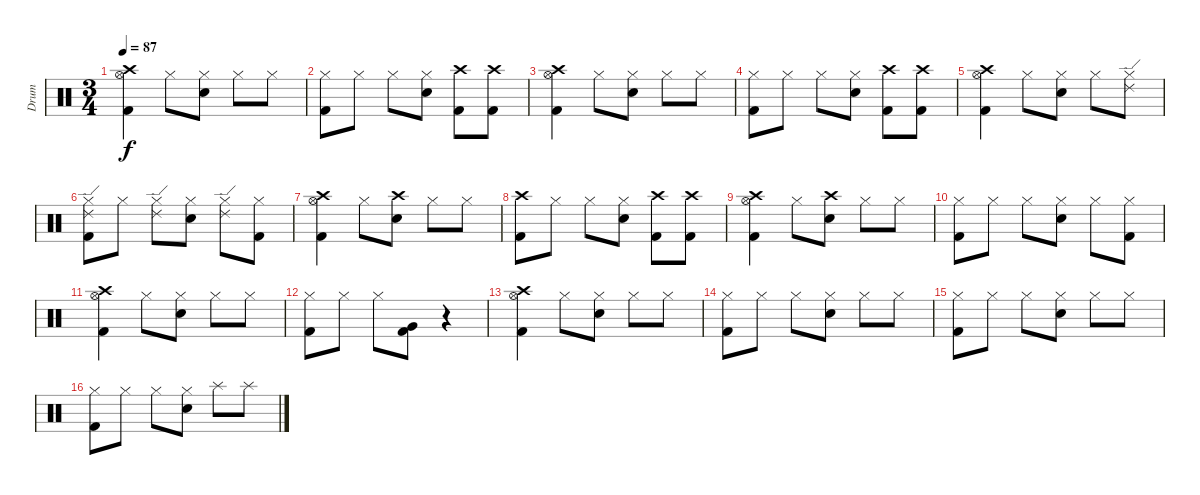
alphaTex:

\track ("Drum" "Drum") {instrument percussion}
\staff {score}
\articulation defaults
\ts (3 4)
\tempo 87
\clef neutral
\ks c
("Crash high (hit)" "Hi-Hat (open)" "Kick (hit) 2").4{dy f} "Hi-Hat (closed)".8 ("Hi-Hat (closed)" "Electric Snare (hit)").8 "Hi-Hat (closed)".8 "Hi-Hat (closed)".8 |
("Hi-Hat (closed)" "Kick (hit) 2").8 "Hi-Hat (closed)".8 "Hi-Hat (closed)".8 ("Hi-Hat (closed)" "Electric Snare (hit)").8 ("Crash high (hit)" "Kick (hit) 2").8 ("Crash high (hit)" "Kick (hit) 2").8 |
("Crash high (hit)" "Hi-Hat (open)" "Kick (hit) 2").4 "Hi-Hat (closed)".8 ("Hi-Hat (closed)" "Electric Snare (hit)").8 "Hi-Hat (closed)".8 "Hi-Hat (closed)".8 |
("Hi-Hat (closed)" "Kick (hit) 2").8 "Hi-Hat (closed)".8 "Hi-Hat (closed)".8 ("Hi-Hat (closed)" "Electric Snare (hit)").8 ("Crash high (hit)" "Kick (hit) 2").8 ("Crash high (hit)" "Kick (hit) 2").8 |
("Crash high (hit)" "Hi-Hat (open)" "Kick (hit) 2").4 "Hi-Hat (closed)".8 ("Hi-Hat (closed)" "Electric Snare (hit)").8 "Hi-Hat (closed)".8 ("Ride (edge) 2" "Hi-Hat (closed)").8 |
("Ride (edge) 2" "Hi-Hat (closed)" "Kick (hit) 2").8 "Hi-Hat (closed)".8 ("Ride (edge) 2" "Hi-Hat (closed)").8 ("Hi-Hat (closed)" "Electric Snare (hit)").8 ("Ride (edge) 2" "Hi-Hat (closed)").8 ("Hi-Hat (closed)" "Kick (hit) 2").8 |
("Crash high (hit)" "Hi-Hat (open)" "Kick (hit) 2").4 "Hi-Hat (closed)".8 ("Crash high (hit)" "Electric Snare (hit)").8 "Hi-Hat (closed)".8 "Hi-Hat (closed)".8 |
("Crash high (hit)" "Kick (hit) 2").8 "Hi-Hat (closed)".8 "Hi-Hat (closed)".8 ("Hi-Hat (closed)" "Electric Snare (hit)").8 ("Crash high (hit)" "Kick (hit) 2").8 ("Crash high (hit)" "Kick (hit) 2").8 |
("Crash high (hit)" "Hi-Hat (open)" "Kick (hit) 2").4 "Hi-Hat (closed)".8 ("Crash high (hit)" "Electric Snare (hit)").8 "Hi-Hat (closed)".8 "Hi-Hat (closed)".8 |
("Hi-Hat (closed)" "Kick (hit) 2").8 "Hi-Hat (closed)".8 "Hi-Hat (closed)".8 ("Hi-Hat (closed)" "Electric Snare (hit)").8 "Hi-Hat (closed)".8 ("Hi-Hat (closed)" "Kick (hit) 2").8 |
("Crash high (hit)" "Hi-Hat (open)" "Kick (hit) 2").4 "Hi-Hat (closed)".8 ("Hi-Hat (closed)" "Electric Snare (hit)").8 "Hi-Hat (closed)".8 "Hi-Hat (closed)".8 |
("Hi-Hat (closed)" "Kick (hit) 2").8 "Hi-Hat (closed)".8 "Hi-Hat (closed)".8 ("Very Low Tom (hit)" "Kick (hit) 2").8 r.4 |
("Crash high (hit)" "Hi-Hat (open)" "Kick (hit) 2").4 "Hi-Hat (closed)".8 ("Hi-Hat (closed)" "Electric Snare (hit)").8 "Hi-Hat (closed)".8 "Hi-Hat (closed)".8 |
("Hi-Hat (closed)" "Kick (hit) 2").8 "Hi-Hat (closed)".8 "Hi-Hat (closed)".8 ("Hi-Hat (closed)" "Electric Snare (hit)").8 "Hi-Hat (closed)".8 "Hi-Hat (closed)".8 |
("Hi-Hat (closed)" "Kick (hit) 2").8 "Hi-Hat (closed)".8 "Hi-Hat (closed)".8 ("Hi-Hat (closed)" "Electric Snare (hit)").8 "Hi-Hat (closed)".8 "Hi-Hat (closed)".8 |
("Hi-Hat (closed)" "Kick (hit) 2").8 "Hi-Hat (closed)".8 "Hi-Hat (closed)".8 ("Hi-Hat (closed)" "Electric Snare (hit)").8 "Splash (hit)".8 "Splash (hit)".8
